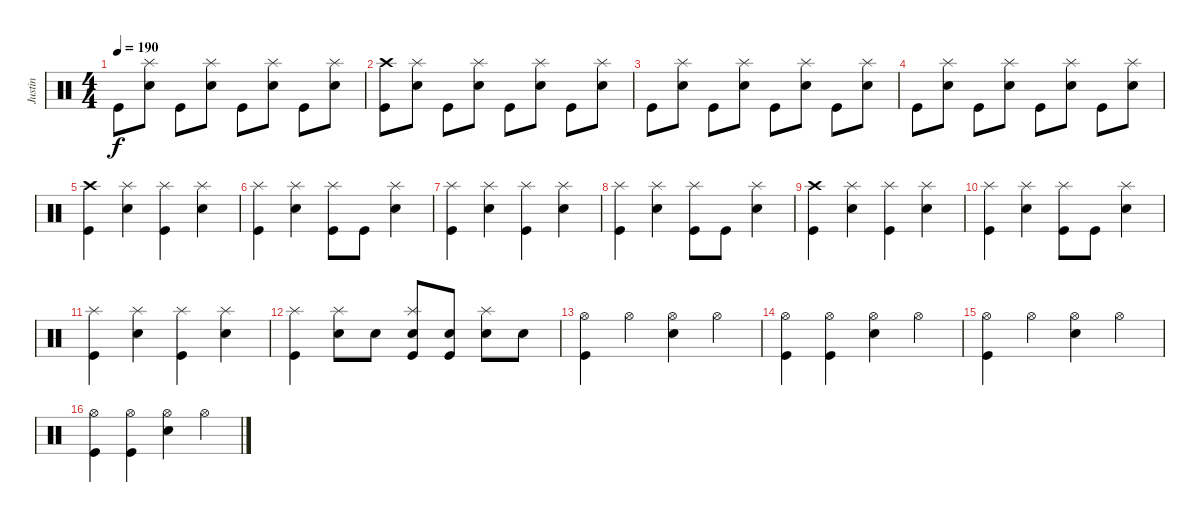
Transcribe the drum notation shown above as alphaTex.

\track ("Justin" "Justin") {instrument percussion}
\staff {score}
\articulation defaults
\ts (4 4)
\tempo 190
\clef neutral
\ks c "Kick (hit)".8{dy f}
("Splash (hit)" "Electric Snare (hit)").8 "Kick (hit)".8 ("Splash (hit)" "Electric Snare (hit)").8 "Kick (hit)".8 ("Splash (hit)" "Electric Snare (hit)").8 "Kick (hit)".8 ("Splash (hit)" "Electric Snare (hit)").8 |
("Crash high (hit)" "Kick (hit)").8 ("Splash (hit)" "Electric Snare (hit)").8 "Kick (hit)".8 ("Splash (hit)" "Electric Snare (hit)").8 "Kick (hit)".8 ("Splash (hit)" "Electric Snare (hit)").8 "Kick (hit)".8 ("Splash (hit)" "Electric Snare (hit)").8 |
"Kick (hit)".8 ("Splash (hit)" "Electric Snare (hit)").8 "Kick (hit)".8 ("Splash (hit)" "Electric Snare (hit)").8 "Kick (hit)".8 ("Splash (hit)" "Electric Snare (hit)").8 "Kick (hit)".8 ("Splash (hit)" "Electric Snare (hit)").8 |
"Kick (hit)".8 ("Splash (hit)" "Electric Snare (hit)").8 "Kick (hit)".8 ("Splash (hit)" "Electric Snare (hit)").8 "Kick (hit)".8 ("Splash (hit)" "Electric Snare (hit)").8 "Kick (hit)".8 ("Splash (hit)" "Electric Snare (hit)").8 |
("Crash high (hit)" "Kick (hit)").4 ("Splash (hit)" "Electric Snare (hit)").4 ("Splash (hit)" "Kick (hit)").4 ("Splash (hit)" "Electric Snare (hit)").4 |
("Splash (hit)" "Kick (hit)").4 ("Splash (hit)" "Electric Snare (hit)").4 ("Splash (hit)" "Kick (hit)").8 "Kick (hit)".8 ("Splash (hit)" "Electric Snare (hit)").4 |
("Splash (hit)" "Kick (hit)").4 ("Splash (hit)" "Electric Snare (hit)").4 ("Splash (hit)" "Kick (hit)").4 ("Splash (hit)" "Electric Snare (hit)").4 |
("Splash (hit)" "Kick (hit)").4 ("Splash (hit)" "Electric Snare (hit)").4 ("Splash (hit)" "Kick (hit)").8 "Kick (hit)".8 ("Splash (hit)" "Electric Snare (hit)").4 |
("Crash high (hit)" "Kick (hit)").4 ("Splash (hit)" "Electric Snare (hit)").4 ("Splash (hit)" "Kick (hit)").4 ("Splash (hit)" "Electric Snare (hit)").4 |
("Splash (hit)" "Kick (hit)").4 ("Splash (hit)" "Electric Snare (hit)").4 ("Splash (hit)" "Kick (hit)").8 "Kick (hit)".8 ("Splash (hit)" "Electric Snare (hit)").4 |
("Splash (hit)" "Kick (hit)").4 ("Splash (hit)" "Electric Snare (hit)").4 ("Splash (hit)" "Kick (hit)").4 ("Splash (hit)" "Electric Snare (hit)").4 |
("Splash (hit)" "Kick (hit)").4 ("Splash (hit)" "Electric Snare (hit)").8 "Electric Snare (hit)".8 ("Splash (hit)" "Electric Snare (hit)" "Kick (hit)").8 ("Electric Snare (hit)" "Kick (hit)").8 ("Splash (hit)" "Electric Snare (hit)").8 "Electric Snare (hit)".8 |
("Hi-Hat (open)" "Kick (hit)").4 "Hi-Hat (open)".4 ("Hi-Hat (open)" "Electric Snare (hit)").4 "Hi-Hat (open)".4 |
("Hi-Hat (open)" "Kick (hit)").4 ("Hi-Hat (open)" "Kick (hit)").4 ("Hi-Hat (open)" "Electric Snare (hit)").4 "Hi-Hat (open)".4 |
("Hi-Hat (open)" "Kick (hit)").4 "Hi-Hat (open)".4 ("Hi-Hat (open)" "Electric Snare (hit)").4 "Hi-Hat (open)".4 |
("Hi-Hat (open)" "Kick (hit)").4 ("Hi-Hat (open)" "Kick (hit)").4 ("Hi-Hat (open)" "Electric Snare (hit)").4 "Hi-Hat (open)".4
